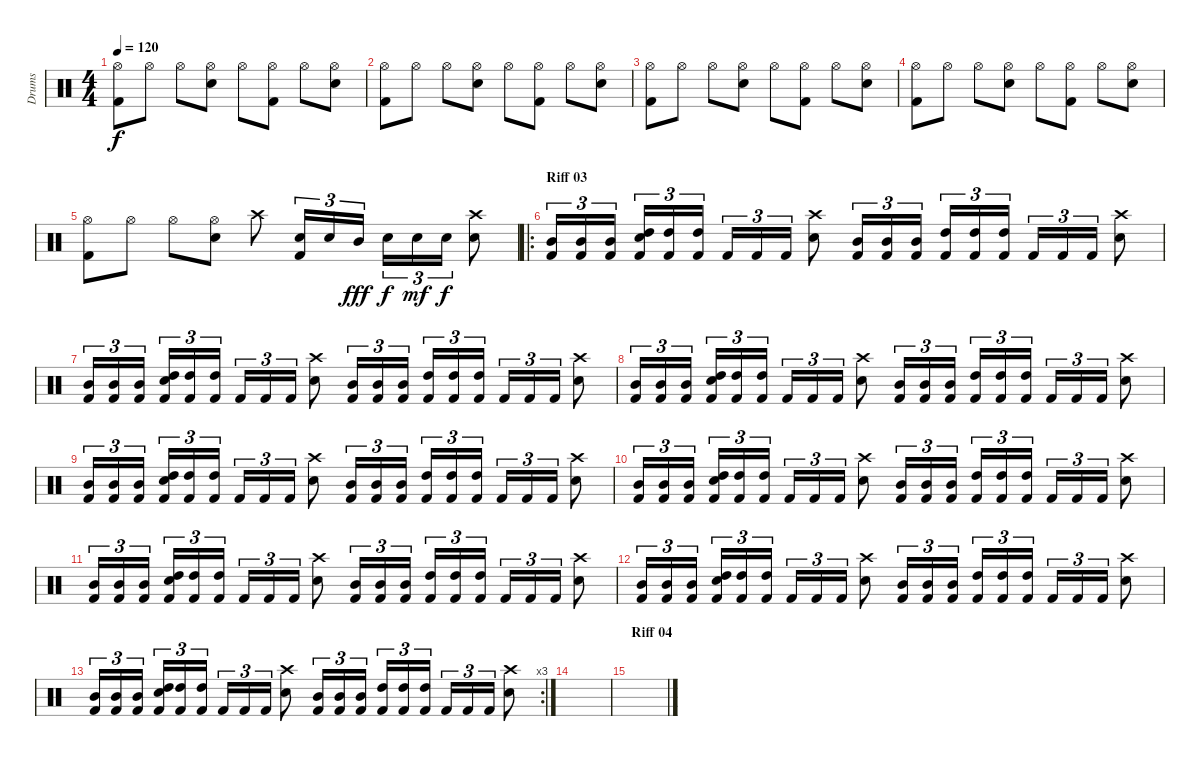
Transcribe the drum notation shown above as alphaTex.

\track ("Drums" "Drums") {instrument percussion}
\staff {score}
\articulation defaults
\ts (4 4)
\tempo 120
\clef neutral
\ks c
("Hi-Hat (open)" "Kick (hit) 2").8{dy f} "Hi-Hat (open)".8 "Hi-Hat (open)".8 ("Hi-Hat (open)" "Electric Snare (hit)").8 "Hi-Hat (open)".8 ("Hi-Hat (open)" "Kick (hit) 2").8 "Hi-Hat (open)".8 ("Hi-Hat (open)" "Electric Snare (hit)").8 |
("Hi-Hat (open)" "Kick (hit) 2").8 "Hi-Hat (open)".8 "Hi-Hat (open)".8 ("Hi-Hat (open)" "Electric Snare (hit)").8 "Hi-Hat (open)".8 ("Hi-Hat (open)" "Kick (hit) 2").8 "Hi-Hat (open)".8 ("Hi-Hat (open)" "Electric Snare (hit)").8 |
("Hi-Hat (open)" "Kick (hit) 2").8 "Hi-Hat (open)".8 "Hi-Hat (open)".8 ("Hi-Hat (open)" "Electric Snare (hit)").8 "Hi-Hat (open)".8 ("Hi-Hat (open)" "Kick (hit) 2").8 "Hi-Hat (open)".8 ("Hi-Hat (open)" "Electric Snare (hit)").8 |
("Hi-Hat (open)" "Kick (hit) 2").8 "Hi-Hat (open)".8 "Hi-Hat (open)".8 ("Hi-Hat (open)" "Electric Snare (hit)").8 "Hi-Hat (open)".8 ("Hi-Hat (open)" "Kick (hit) 2").8 "Hi-Hat (open)".8 ("Hi-Hat (open)" "Electric Snare (hit)").8 |
("Hi-Hat (open)" "Kick (hit) 2").8 "Hi-Hat (open)".8 "Hi-Hat (open)".8 ("Hi-Hat (open)" "Electric Snare (hit)").8 "Crash high (hit)".8 ("Electric Snare (hit)" "Kick (hit) 2").16{tu (3 2)} "Electric Snare (hit)".16{tu (3 2)} "Mid Tom (hit)".16{tu (3 2) dy fff} "Electric Snare (hit)".16{tu (3 2) dy f} "Electric Snare (hit)".16{tu (3 2) dy mf} "Electric Snare (hit)".16{tu (3 2) dy f} ("Crash high (hit)" "Electric Snare (hit)").8 |
\ro
\section ("" "Riff 03")
("Mid Tom (hit)" "Kick (hit) 2").16{tu (3 2)} ("Mid Tom (hit)" "Kick (hit) 2").16{tu (3 2)} ("Mid Tom (hit)" "Kick (hit) 2").16{tu (3 2)} ("High Tom (hit)" "Electric Snare (hit)" "Kick (hit) 2").16{tu (3 2)} ("High Tom (hit)" "Kick (hit) 2").16{tu (3 2)} ("High Tom (hit)" "Kick (hit) 2").16{tu (3 2)} "Kick (hit) 2".16{tu (3 2)} "Kick (hit) 2".16{tu (3 2)} "Kick (hit) 2".16{tu (3 2)} ("Crash high (hit)" "Electric Snare (hit)").8 ("Mid Tom (hit)" "Kick (hit) 2").16{tu (3 2)} ("Mid Tom (hit)" "Kick (hit) 2").16{tu (3 2)} ("Mid Tom (hit)" "Kick (hit) 2").16{tu (3 2)} ("High Tom (hit)" "Kick (hit) 2").16{tu (3 2)} ("High Tom (hit)" "Kick (hit) 2").16{tu (3 2)} ("High Tom (hit)" "Kick (hit) 2").16{tu (3 2)} "Kick (hit) 2".16{tu (3 2)} "Kick (hit) 2".16{tu (3 2)} "Kick (hit) 2".16{tu (3 2)} ("Crash high (hit)" "Electric Snare (hit)").8 |
("Mid Tom (hit)" "Kick (hit) 2").16{tu (3 2)} ("Mid Tom (hit)" "Kick (hit) 2").16{tu (3 2)} ("Mid Tom (hit)" "Kick (hit) 2").16{tu (3 2)} ("High Tom (hit)" "Electric Snare (hit)" "Kick (hit) 2").16{tu (3 2)} ("High Tom (hit)" "Kick (hit) 2").16{tu (3 2)} ("High Tom (hit)" "Kick (hit) 2").16{tu (3 2)} "Kick (hit) 2".16{tu (3 2)} "Kick (hit) 2".16{tu (3 2)} "Kick (hit) 2".16{tu (3 2)} ("Crash high (hit)" "Electric Snare (hit)").8 ("Mid Tom (hit)" "Kick (hit) 2").16{tu (3 2)} ("Mid Tom (hit)" "Kick (hit) 2").16{tu (3 2)} ("Mid Tom (hit)" "Kick (hit) 2").16{tu (3 2)} ("High Tom (hit)" "Kick (hit) 2").16{tu (3 2)} ("High Tom (hit)" "Kick (hit) 2").16{tu (3 2)} ("High Tom (hit)" "Kick (hit) 2").16{tu (3 2)} "Kick (hit) 2".16{tu (3 2)} "Kick (hit) 2".16{tu (3 2)} "Kick (hit) 2".16{tu (3 2)} ("Crash high (hit)" "Electric Snare (hit)").8 |
("Mid Tom (hit)" "Kick (hit) 2").16{tu (3 2)} ("Mid Tom (hit)" "Kick (hit) 2").16{tu (3 2)} ("Mid Tom (hit)" "Kick (hit) 2").16{tu (3 2)} ("High Tom (hit)" "Electric Snare (hit)" "Kick (hit) 2").16{tu (3 2)} ("High Tom (hit)" "Kick (hit) 2").16{tu (3 2)} ("High Tom (hit)" "Kick (hit) 2").16{tu (3 2)} "Kick (hit) 2".16{tu (3 2)} "Kick (hit) 2".16{tu (3 2)} "Kick (hit) 2".16{tu (3 2)} ("Crash high (hit)" "Electric Snare (hit)").8 ("Mid Tom (hit)" "Kick (hit) 2").16{tu (3 2)} ("Mid Tom (hit)" "Kick (hit) 2").16{tu (3 2)} ("Mid Tom (hit)" "Kick (hit) 2").16{tu (3 2)} ("High Tom (hit)" "Kick (hit) 2").16{tu (3 2)} ("High Tom (hit)" "Kick (hit) 2").16{tu (3 2)} ("High Tom (hit)" "Kick (hit) 2").16{tu (3 2)} "Kick (hit) 2".16{tu (3 2)} "Kick (hit) 2".16{tu (3 2)} "Kick (hit) 2".16{tu (3 2)} ("Crash high (hit)" "Electric Snare (hit)").8 |
("Mid Tom (hit)" "Kick (hit) 2").16{tu (3 2)} ("Mid Tom (hit)" "Kick (hit) 2").16{tu (3 2)} ("Mid Tom (hit)" "Kick (hit) 2").16{tu (3 2)} ("High Tom (hit)" "Electric Snare (hit)" "Kick (hit) 2").16{tu (3 2)} ("High Tom (hit)" "Kick (hit) 2").16{tu (3 2)} ("High Tom (hit)" "Kick (hit) 2").16{tu (3 2)} "Kick (hit) 2".16{tu (3 2)} "Kick (hit) 2".16{tu (3 2)} "Kick (hit) 2".16{tu (3 2)} ("Crash high (hit)" "Electric Snare (hit)").8 ("Mid Tom (hit)" "Kick (hit) 2").16{tu (3 2)} ("Mid Tom (hit)" "Kick (hit) 2").16{tu (3 2)} ("Mid Tom (hit)" "Kick (hit) 2").16{tu (3 2)} ("High Tom (hit)" "Kick (hit) 2").16{tu (3 2)} ("High Tom (hit)" "Kick (hit) 2").16{tu (3 2)} ("High Tom (hit)" "Kick (hit) 2").16{tu (3 2)} "Kick (hit) 2".16{tu (3 2)} "Kick (hit) 2".16{tu (3 2)} "Kick (hit) 2".16{tu (3 2)} ("Crash high (hit)" "Electric Snare (hit)").8 |
("Mid Tom (hit)" "Kick (hit) 2").16{tu (3 2)} ("Mid Tom (hit)" "Kick (hit) 2").16{tu (3 2)} ("Mid Tom (hit)" "Kick (hit) 2").16{tu (3 2)} ("High Tom (hit)" "Electric Snare (hit)" "Kick (hit) 2").16{tu (3 2)} ("High Tom (hit)" "Kick (hit) 2").16{tu (3 2)} ("High Tom (hit)" "Kick (hit) 2").16{tu (3 2)} "Kick (hit) 2".16{tu (3 2)} "Kick (hit) 2".16{tu (3 2)} "Kick (hit) 2".16{tu (3 2)} ("Crash high (hit)" "Electric Snare (hit)").8 ("Mid Tom (hit)" "Kick (hit) 2").16{tu (3 2)} ("Mid Tom (hit)" "Kick (hit) 2").16{tu (3 2)} ("Mid Tom (hit)" "Kick (hit) 2").16{tu (3 2)} ("High Tom (hit)" "Kick (hit) 2").16{tu (3 2)} ("High Tom (hit)" "Kick (hit) 2").16{tu (3 2)} ("High Tom (hit)" "Kick (hit) 2").16{tu (3 2)} "Kick (hit) 2".16{tu (3 2)} "Kick (hit) 2".16{tu (3 2)} "Kick (hit) 2".16{tu (3 2)} ("Crash high (hit)" "Electric Snare (hit)").8 |
("Mid Tom (hit)" "Kick (hit) 2").16{tu (3 2)} ("Mid Tom (hit)" "Kick (hit) 2").16{tu (3 2)} ("Mid Tom (hit)" "Kick (hit) 2").16{tu (3 2)} ("High Tom (hit)" "Electric Snare (hit)" "Kick (hit) 2").16{tu (3 2)} ("High Tom (hit)" "Kick (hit) 2").16{tu (3 2)} ("High Tom (hit)" "Kick (hit) 2").16{tu (3 2)} "Kick (hit) 2".16{tu (3 2)} "Kick (hit) 2".16{tu (3 2)} "Kick (hit) 2".16{tu (3 2)} ("Crash high (hit)" "Electric Snare (hit)").8 ("Mid Tom (hit)" "Kick (hit) 2").16{tu (3 2)} ("Mid Tom (hit)" "Kick (hit) 2").16{tu (3 2)} ("Mid Tom (hit)" "Kick (hit) 2").16{tu (3 2)} ("High Tom (hit)" "Kick (hit) 2").16{tu (3 2)} ("High Tom (hit)" "Kick (hit) 2").16{tu (3 2)} ("High Tom (hit)" "Kick (hit) 2").16{tu (3 2)} "Kick (hit) 2".16{tu (3 2)} "Kick (hit) 2".16{tu (3 2)} "Kick (hit) 2".16{tu (3 2)} ("Crash high (hit)" "Electric Snare (hit)").8 |
("Mid Tom (hit)" "Kick (hit) 2").16{tu (3 2)} ("Mid Tom (hit)" "Kick (hit) 2").16{tu (3 2)} ("Mid Tom (hit)" "Kick (hit) 2").16{tu (3 2)} ("High Tom (hit)" "Electric Snare (hit)" "Kick (hit) 2").16{tu (3 2)} ("High Tom (hit)" "Kick (hit) 2").16{tu (3 2)} ("High Tom (hit)" "Kick (hit) 2").16{tu (3 2)} "Kick (hit) 2".16{tu (3 2)} "Kick (hit) 2".16{tu (3 2)} "Kick (hit) 2".16{tu (3 2)} ("Crash high (hit)" "Electric Snare (hit)").8 ("Mid Tom (hit)" "Kick (hit) 2").16{tu (3 2)} ("Mid Tom (hit)" "Kick (hit) 2").16{tu (3 2)} ("Mid Tom (hit)" "Kick (hit) 2").16{tu (3 2)} ("High Tom (hit)" "Kick (hit) 2").16{tu (3 2)} ("High Tom (hit)" "Kick (hit) 2").16{tu (3 2)} ("High Tom (hit)" "Kick (hit) 2").16{tu (3 2)} "Kick (hit) 2".16{tu (3 2)} "Kick (hit) 2".16{tu (3 2)} "Kick (hit) 2".16{tu (3 2)} ("Crash high (hit)" "Electric Snare (hit)").8 |
\rc 3
("Mid Tom (hit)" "Kick (hit) 2").16{tu (3 2)} ("Mid Tom (hit)" "Kick (hit) 2").16{tu (3 2)} ("Mid Tom (hit)" "Kick (hit) 2").16{tu (3 2)} ("High Tom (hit)" "Electric Snare (hit)" "Kick (hit) 2").16{tu (3 2)} ("High Tom (hit)" "Kick (hit) 2").16{tu (3 2)} ("High Tom (hit)" "Kick (hit) 2").16{tu (3 2)} "Kick (hit) 2".16{tu (3 2)} "Kick (hit) 2".16{tu (3 2)} "Kick (hit) 2".16{tu (3 2)} ("Crash high (hit)" "Electric Snare (hit)").8 ("Mid Tom (hit)" "Kick (hit) 2").16{tu (3 2)} ("Mid Tom (hit)" "Kick (hit) 2").16{tu (3 2)} ("Mid Tom (hit)" "Kick (hit) 2").16{tu (3 2)} ("High Tom (hit)" "Kick (hit) 2").16{tu (3 2)} ("High Tom (hit)" "Kick (hit) 2").16{tu (3 2)} ("High Tom (hit)" "Kick (hit) 2").16{tu (3 2)} "Kick (hit) 2".16{tu (3 2)} "Kick (hit) 2".16{tu (3 2)} "Kick (hit) 2".16{tu (3 2)} ("Crash high (hit)" "Electric Snare (hit)").8 |
|
\section ("" "Riff 04")
